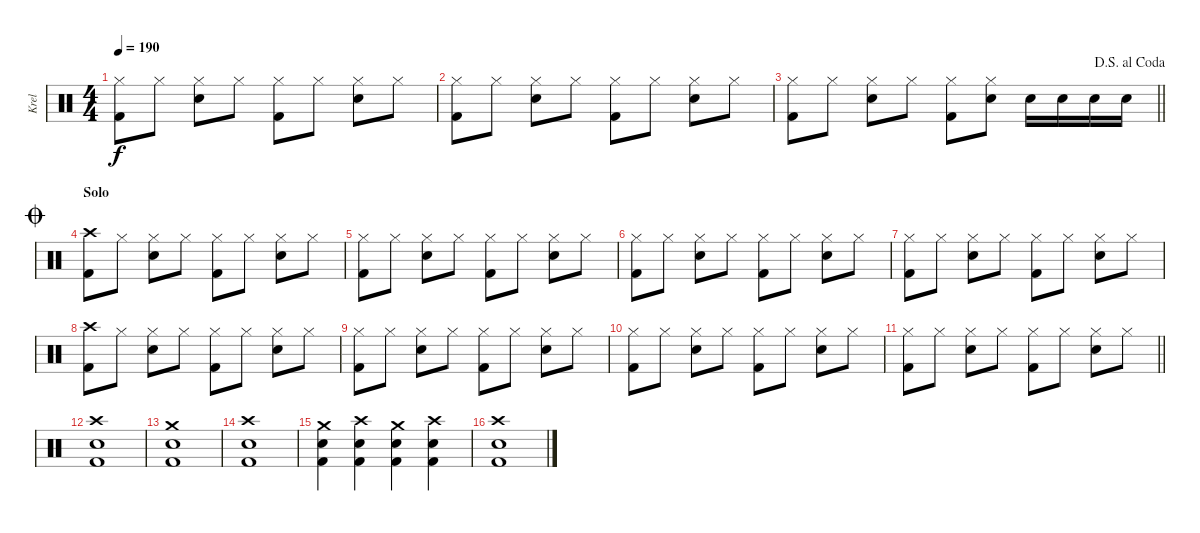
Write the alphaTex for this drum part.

\track ("Krel" "Krel") {instrument percussion}
\staff {score}
\articulation defaults
\ts (4 4)
\tempo 190
\clef neutral
\ks c
("Hi-Hat (closed)" "Kick (hit) 2").8{dy f} "Hi-Hat (closed)".8 ("Hi-Hat (closed)" "Snare (hit) 2").8 "Hi-Hat (closed)".8 ("Hi-Hat (closed)" "Kick (hit) 2").8 "Hi-Hat (closed)".8 ("Hi-Hat (closed)" "Snare (hit) 2").8 "Hi-Hat (closed)".8 |
("Hi-Hat (closed)" "Kick (hit) 2").8 "Hi-Hat (closed)".8 ("Hi-Hat (closed)" "Snare (hit) 2").8 "Hi-Hat (closed)".8 ("Hi-Hat (closed)" "Kick (hit) 2").8 "Hi-Hat (closed)".8 ("Hi-Hat (closed)" "Snare (hit) 2").8 "Hi-Hat (closed)".8 |
\jump dalsegnoalcoda
\barLineRight lightlight
("Hi-Hat (closed)" "Kick (hit) 2").8 "Hi-Hat (closed)".8 ("Hi-Hat (closed)" "Snare (hit) 2").8 "Hi-Hat (closed)".8 ("Hi-Hat (closed)" "Kick (hit) 2").8 ("Hi-Hat (closed)" "Snare (hit) 2").8 "Snare (hit) 2".16 "Snare (hit) 2".16 "Snare (hit) 2".16 "Snare (hit) 2".16 |
\section ("" "Solo")
\jump coda
("Crash high (hit)" "Kick (hit) 2").8 "Hi-Hat (closed)".8 ("Hi-Hat (closed)" "Snare (hit) 2").8 "Hi-Hat (closed)".8 ("Hi-Hat (closed)" "Kick (hit) 2").8 "Hi-Hat (closed)".8 ("Hi-Hat (closed)" "Snare (hit) 2").8 "Hi-Hat (closed)".8 |
("Hi-Hat (closed)" "Kick (hit) 2").8 "Hi-Hat (closed)".8 ("Hi-Hat (closed)" "Snare (hit) 2").8 "Hi-Hat (closed)".8 ("Hi-Hat (closed)" "Kick (hit) 2").8 "Hi-Hat (closed)".8 ("Hi-Hat (closed)" "Snare (hit) 2").8 "Hi-Hat (closed)".8 |
("Hi-Hat (closed)" "Kick (hit) 2").8 "Hi-Hat (closed)".8 ("Hi-Hat (closed)" "Snare (hit) 2").8 "Hi-Hat (closed)".8 ("Hi-Hat (closed)" "Kick (hit) 2").8 "Hi-Hat (closed)".8 ("Hi-Hat (closed)" "Snare (hit) 2").8 "Hi-Hat (closed)".8 |
("Hi-Hat (closed)" "Kick (hit) 2").8 "Hi-Hat (closed)".8 ("Hi-Hat (closed)" "Snare (hit) 2").8 "Hi-Hat (closed)".8 ("Hi-Hat (closed)" "Kick (hit) 2").8 "Hi-Hat (closed)".8 ("Hi-Hat (closed)" "Snare (hit) 2").8 "Hi-Hat (closed)".8 |
("Crash high (hit)" "Kick (hit) 2").8 "Hi-Hat (closed)".8 ("Hi-Hat (closed)" "Snare (hit) 2").8 "Hi-Hat (closed)".8 ("Hi-Hat (closed)" "Kick (hit) 2").8 "Hi-Hat (closed)".8 ("Hi-Hat (closed)" "Snare (hit) 2").8 "Hi-Hat (closed)".8 |
("Hi-Hat (closed)" "Kick (hit) 2").8 "Hi-Hat (closed)".8 ("Hi-Hat (closed)" "Snare (hit) 2").8 "Hi-Hat (closed)".8 ("Hi-Hat (closed)" "Kick (hit) 2").8 "Hi-Hat (closed)".8 ("Hi-Hat (closed)" "Snare (hit) 2").8 "Hi-Hat (closed)".8 |
("Hi-Hat (closed)" "Kick (hit) 2").8 "Hi-Hat (closed)".8 ("Hi-Hat (closed)" "Snare (hit) 2").8 "Hi-Hat (closed)".8 ("Hi-Hat (closed)" "Kick (hit) 2").8 "Hi-Hat (closed)".8 ("Hi-Hat (closed)" "Snare (hit) 2").8 "Hi-Hat (closed)".8 |
\barLineRight lightlight
("Hi-Hat (closed)" "Kick (hit) 2").8 "Hi-Hat (closed)".8 ("Hi-Hat (closed)" "Snare (hit) 2").8 "Hi-Hat (closed)".8 ("Hi-Hat (closed)" "Kick (hit) 2").8 "Hi-Hat (closed)".8 ("Hi-Hat (closed)" "Snare (hit) 2").8 "Hi-Hat (closed)".8 |
("Crash high (hit)" "Snare (hit) 2" "Kick (hit) 2").1 |
("Crash medium (hit)" "Snare (hit) 2" "Kick (hit) 2").1 |
("Crash high (hit)" "Snare (hit) 2" "Kick (hit) 2").1 |
("Crash medium (hit)" "Snare (hit) 2" "Kick (hit) 2").4 ("Crash high (hit)" "Snare (hit) 2" "Kick (hit) 2").4 ("Crash medium (hit)" "Snare (hit) 2" "Kick (hit) 2").4 ("Crash high (hit)" "Snare (hit) 2" "Kick (hit) 2").4 |
("Crash high (hit)" "Snare (hit) 2" "Kick (hit) 2").1
